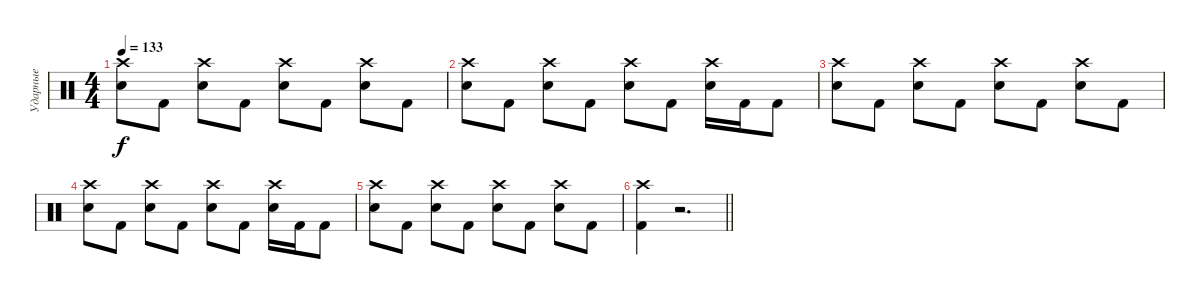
\track ("Ударные" "Ударные") {instrument percussion}
\staff {score}
\articulation defaults
\ts (4 4)
\tempo 133
\clef neutral
\ks c
("Crash high (hit)" "Electric Snare (hit)").8{dy f} "Kick (hit) 2".8 ("Crash high (hit)" "Electric Snare (hit)").8 "Kick (hit) 2".8 ("Crash high (hit)" "Electric Snare (hit)").8 "Kick (hit) 2".8 ("Crash high (hit)" "Electric Snare (hit)").8 "Kick (hit) 2".8 |
("Crash high (hit)" "Electric Snare (hit)").8 "Kick (hit) 2".8 ("Crash high (hit)" "Electric Snare (hit)").8 "Kick (hit) 2".8 ("Crash high (hit)" "Electric Snare (hit)").8 "Kick (hit) 2".8 ("Crash high (hit)" "Electric Snare (hit)").16 "Kick (hit) 2".16 "Kick (hit) 2".8 |
("Crash high (hit)" "Electric Snare (hit)").8 "Kick (hit) 2".8 ("Crash high (hit)" "Electric Snare (hit)").8 "Kick (hit) 2".8 ("Crash high (hit)" "Electric Snare (hit)").8 "Kick (hit) 2".8 ("Crash high (hit)" "Electric Snare (hit)").8 "Kick (hit) 2".8 |
("Crash high (hit)" "Electric Snare (hit)").8 "Kick (hit) 2".8 ("Crash high (hit)" "Electric Snare (hit)").8 "Kick (hit) 2".8 ("Crash high (hit)" "Electric Snare (hit)").8 "Kick (hit) 2".8 ("Crash high (hit)" "Electric Snare (hit)").16 "Kick (hit) 2".16 "Kick (hit) 2".8 |
("Crash high (hit)" "Electric Snare (hit)").8 "Kick (hit) 2".8 ("Crash high (hit)" "Electric Snare (hit)").8 "Kick (hit) 2".8 ("Crash high (hit)" "Electric Snare (hit)").8 "Kick (hit) 2".8 ("Crash high (hit)" "Electric Snare (hit)").8 "Kick (hit) 2".8 |
\barLineRight lightlight
("Crash high (hit)" "Kick (hit) 2").4 r.2{d}
